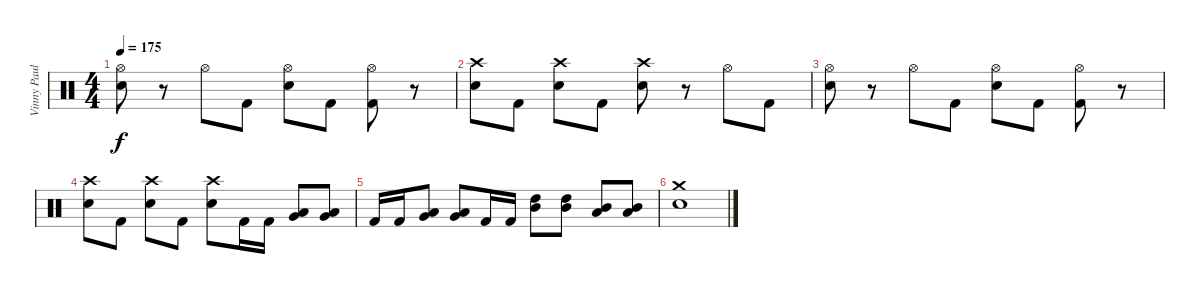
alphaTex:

\track ("Vinny Paul" "Vinny Paul") {instrument percussion}
\staff {score}
\articulation defaults
\ts (4 4)
\tempo 175
\clef neutral
\ks c
("Hi-Hat (open)" "Snare (hit) 2").8{dy f} r.8 "Hi-Hat (open)".8 "Kick (hit) 2".8 ("Hi-Hat (open)" "Snare (hit) 2").8 "Kick (hit) 2".8 ("Hi-Hat (open)" "Kick (hit) 2").8 r.8 |
("Crash high (hit)" "Snare (hit) 2").8 "Kick (hit) 2".8 ("Crash high (hit)" "Snare (hit) 2").8 "Kick (hit) 2".8 ("Crash high (hit)" "Snare (hit) 2").8 r.8 "Hi-Hat (open)".8 "Kick (hit) 2".8 |
("Hi-Hat (open)" "Snare (hit) 2").8 r.8 "Hi-Hat (open)".8 "Kick (hit) 2".8 ("Hi-Hat (open)" "Snare (hit) 2").8 "Kick (hit) 2".8 ("Hi-Hat (open)" "Kick (hit) 2").8 r.8 |
("Crash high (hit)" "Snare (hit) 2").8 "Kick (hit) 2".8 ("Crash high (hit)" "Snare (hit) 2").8 "Kick (hit) 2".8 ("Crash high (hit)" "Snare (hit) 2").8 "Kick (hit) 2".16 "Kick (hit) 2".16 ("Low Tom (hit)" "Very Low Tom (hit)").8 ("Low Tom (hit)" "Very Low Tom (hit)").8 |
"Kick (hit) 2".16 "Kick (hit) 2".16 ("Low Tom (hit)" "Very Low Tom (hit)").8 ("Low Tom (hit)" "Very Low Tom (hit)").8 "Kick (hit) 2".16 "Kick (hit) 2".16 ("High Tom (hit)" "Mid Tom (hit)").8 ("High Tom (hit)" "Mid Tom (hit)").8 ("Mid Tom (hit)" "Low Tom (hit)").8 ("Mid Tom (hit)" "Low Tom (hit)").8 |
("Crash medium (hit)" "Snare (hit) 2").1
